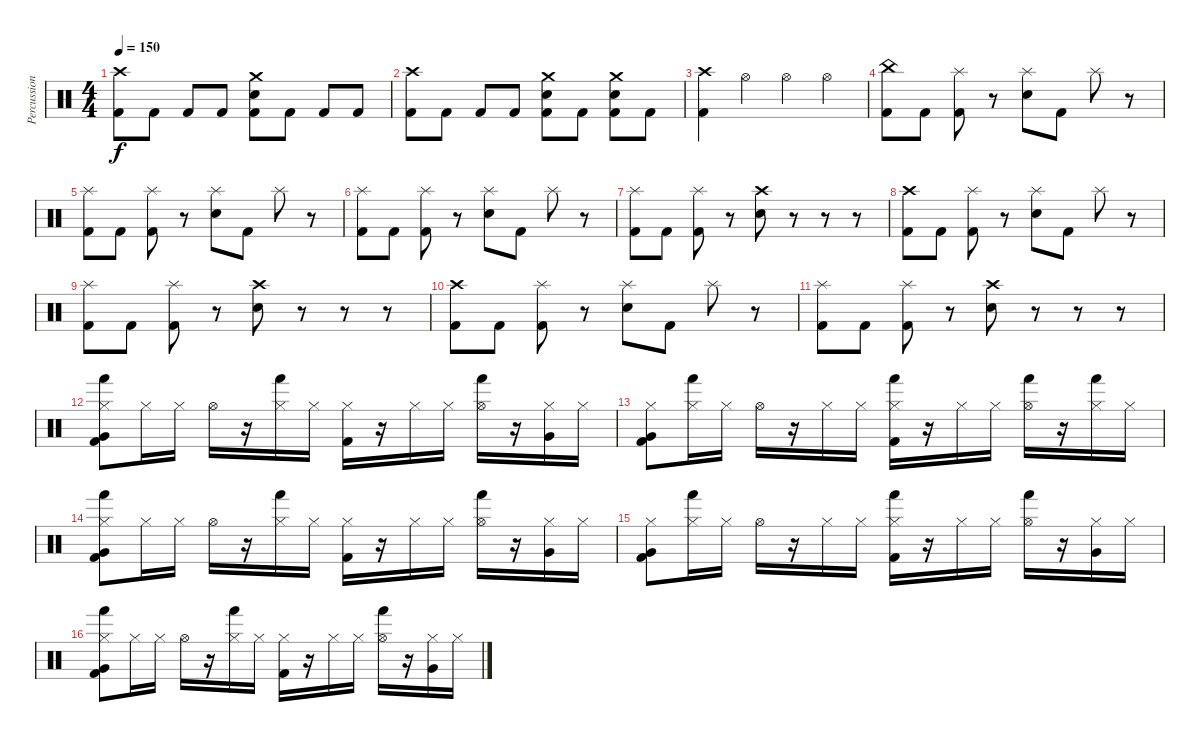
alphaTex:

\track ("Percussion" "Percussion") {instrument percussion}
\staff {score}
\articulation defaults
\ts (4 4)
\tempo 150
\clef neutral
\ks c
("Kick (hit) 2" "Crash high (hit)").8{dy f} "Kick (hit) 2".8 "Kick (hit) 2".8 "Kick (hit) 2".8 ("Electric Snare (hit)" "Kick (hit) 2" "Crash medium (hit)").8 "Kick (hit) 2".8 "Kick (hit) 2".8 "Kick (hit) 2".8 |
("Kick (hit) 2" "Crash high (hit)").8 "Kick (hit) 2".8 "Kick (hit) 2".8 "Kick (hit) 2".8 ("Electric Snare (hit)" "Kick (hit) 2" "Crash medium (hit)").8 "Kick (hit) 2".8 ("Kick (hit) 2" "Electric Snare (hit)" "Crash medium (hit)").8 "Kick (hit) 2".8 |
("Kick (hit) 2" "Crash high (hit)").4 "Hi-Hat (open)".4 "Hi-Hat (open)".4 "Hi-Hat (open)".4 |
("China (hit)" "Kick (hit) 2").8 "Kick (hit) 2".8 ("Splash (hit)" "Kick (hit) 2").8 r.8 ("Splash (hit)" "Electric Snare (hit)").8 "Kick (hit) 2".8 "Splash (hit)".8 r.8 |
("Splash (hit)" "Kick (hit) 2").8 "Kick (hit) 2".8 ("Splash (hit)" "Kick (hit) 2").8 r.8 ("Splash (hit)" "Electric Snare (hit)").8 "Kick (hit) 2".8 "Splash (hit)".8 r.8 |
("Splash (hit)" "Kick (hit) 2").8 "Kick (hit) 2".8 ("Splash (hit)" "Kick (hit) 2").8 r.8 ("Splash (hit)" "Electric Snare (hit)").8 "Kick (hit) 2".8 "Splash (hit)".8 r.8 |
("Splash (hit)" "Kick (hit) 2").8 "Kick (hit) 2".8 ("Splash (hit)" "Kick (hit) 2").8 r.8 ("Crash high (hit)" "Electric Snare (hit)").8 r.8 r.8 r.8 |
("Crash high (hit)" "Kick (hit) 2").8 "Kick (hit) 2".8 ("Splash (hit)" "Kick (hit) 2").8 r.8 ("Splash (hit)" "Electric Snare (hit)").8 "Kick (hit) 2".8 "Splash (hit)".8 r.8 |
("Splash (hit)" "Kick (hit) 2").8 "Kick (hit) 2".8 ("Splash (hit)" "Kick (hit) 2").8 r.8 ("Crash high (hit)" "Electric Snare (hit)").8 r.8 r.8 r.8 |
("Crash high (hit)" "Kick (hit) 2").8 "Kick (hit) 2".8 ("Splash (hit)" "Kick (hit) 2").8 r.8 ("Splash (hit)" "Electric Snare (hit)").8 "Kick (hit) 2".8 "Splash (hit)".8 r.8 |
("Splash (hit)" "Kick (hit) 2").8 "Kick (hit) 2".8 ("Splash (hit)" "Kick (hit) 2").8 r.8 ("Crash high (hit)" "Electric Snare (hit)").8 r.8 r.8 r.8 |
("Hand (hit)" "Very Low Tom (hit)" "Hi-Hat (closed)" "Kick (hit) 2").8 "Hi-Hat (closed)".16 "Hi-Hat (closed)".16 "Hi-Hat (open)".16 r.16 ("Hand (hit)" "Hi-Hat (closed)").16 "Hi-Hat (closed)".16 ("Hi-Hat (closed)" "Kick (hit) 2").16 r.16 "Hi-Hat (closed)".16 "Hi-Hat (closed)".16 ("Hand (hit)" "Hi-Hat (open)").16 r.16 ("Very Low Tom (hit)" "Hi-Hat (closed)").16 "Hi-Hat (closed)".16 |
("Very Low Tom (hit)" "Hi-Hat (closed)" "Kick (hit) 2").8 ("Hand (hit)" "Hi-Hat (closed)").16 "Hi-Hat (closed)".16 "Hi-Hat (open)".16 r.16 "Hi-Hat (closed)".16 "Hi-Hat (closed)".16 ("Hand (hit)" "Hi-Hat (closed)" "Kick (hit) 2").16 r.16 "Hi-Hat (closed)".16 "Hi-Hat (closed)".16 ("Hand (hit)" "Hi-Hat (open)").16 r.16 ("Hand (hit)" "Hi-Hat (closed)").16 "Hi-Hat (closed)".16 |
("Hand (hit)" "Very Low Tom (hit)" "Hi-Hat (closed)" "Kick (hit) 2").8 "Hi-Hat (closed)".16 "Hi-Hat (closed)".16 "Hi-Hat (open)".16 r.16 ("Hand (hit)" "Hi-Hat (closed)").16 "Hi-Hat (closed)".16 ("Hi-Hat (closed)" "Kick (hit) 2").16 r.16 "Hi-Hat (closed)".16 "Hi-Hat (closed)".16 ("Hand (hit)" "Hi-Hat (open)").16 r.16 ("Very Low Tom (hit)" "Hi-Hat (closed)").16 "Hi-Hat (closed)".16 |
("Very Low Tom (hit)" "Hi-Hat (closed)" "Kick (hit) 2").8 ("Hand (hit)" "Hi-Hat (closed)").16 "Hi-Hat (closed)".16 "Hi-Hat (open)".16 r.16 "Hi-Hat (closed)".16 "Hi-Hat (closed)".16 ("Hand (hit)" "Hi-Hat (closed)" "Kick (hit) 2").16 r.16 "Hi-Hat (closed)".16 "Hi-Hat (closed)".16 ("Hand (hit)" "Hi-Hat (open)").16 r.16 ("Very Low Tom (hit)" "Hi-Hat (closed)").16 "Hi-Hat (closed)".16 |
("Hand (hit)" "Very Low Tom (hit)" "Hi-Hat (closed)" "Kick (hit) 2").8 "Hi-Hat (closed)".16 "Hi-Hat (closed)".16 "Hi-Hat (open)".16 r.16 ("Hand (hit)" "Hi-Hat (closed)").16 "Hi-Hat (closed)".16 ("Hi-Hat (closed)" "Kick (hit) 2").16 r.16 "Hi-Hat (closed)".16 "Hi-Hat (closed)".16 ("Hand (hit)" "Hi-Hat (open)").16 r.16 ("Very Low Tom (hit)" "Hi-Hat (closed)").16 "Hi-Hat (closed)".16
